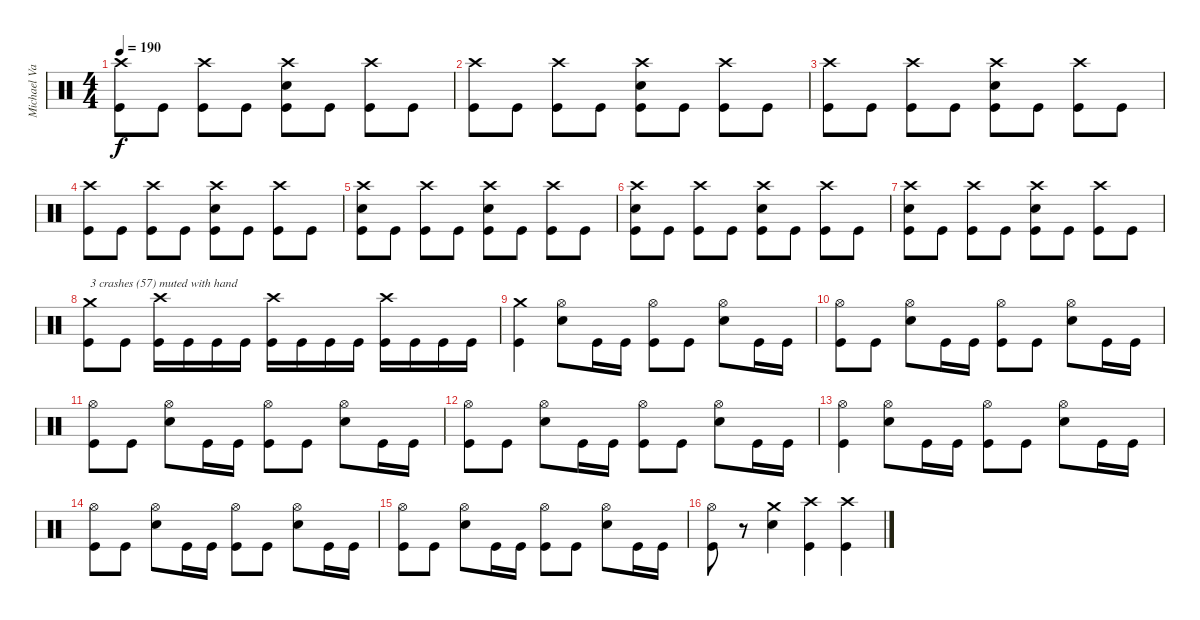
\track ("Michael VanDyne" "Michael Va") {instrument percussion}
\staff {score}
\articulation defaults
\ts (4 4)
\tempo 190
\clef neutral
\ks c
("Crash high (hit)" "Kick (hit)").8{dy f} "Kick (hit)".8 ("Crash high (hit)" "Kick (hit)").8 "Kick (hit)".8 ("Crash high (hit)" "Electric Snare (hit)" "Kick (hit)").8 "Kick (hit)".8 ("Crash high (hit)" "Kick (hit)").8 "Kick (hit)".8 |
("Crash high (hit)" "Kick (hit)").8 "Kick (hit)".8 ("Crash high (hit)" "Kick (hit)").8 "Kick (hit)".8 ("Crash high (hit)" "Electric Snare (hit)" "Kick (hit)").8 "Kick (hit)".8 ("Crash high (hit)" "Kick (hit)").8 "Kick (hit)".8 |
("Crash high (hit)" "Kick (hit)").8 "Kick (hit)".8 ("Crash high (hit)" "Kick (hit)").8 "Kick (hit)".8 ("Crash high (hit)" "Electric Snare (hit)" "Kick (hit)").8 "Kick (hit)".8 ("Crash high (hit)" "Kick (hit)").8 "Kick (hit)".8 |
("Crash high (hit)" "Kick (hit)").8 "Kick (hit)".8 ("Crash high (hit)" "Kick (hit)").8 "Kick (hit)".8 ("Crash high (hit)" "Electric Snare (hit)" "Kick (hit)").8 "Kick (hit)".8 ("Crash high (hit)" "Kick (hit)").8 "Kick (hit)".8 |
("Crash high (hit)" "Electric Snare (hit)" "Kick (hit)").8 "Kick (hit)".8 ("Crash high (hit)" "Kick (hit)").8 "Kick (hit)".8 ("Crash high (hit)" "Electric Snare (hit)" "Kick (hit)").8 "Kick (hit)".8 ("Crash high (hit)" "Kick (hit)").8 "Kick (hit)".8 |
("Crash high (hit)" "Electric Snare (hit)" "Kick (hit)").8 "Kick (hit)".8 ("Crash high (hit)" "Kick (hit)").8 "Kick (hit)".8 ("Crash high (hit)" "Electric Snare (hit)" "Kick (hit)").8 "Kick (hit)".8 ("Crash high (hit)" "Kick (hit)").8 "Kick (hit)".8 |
("Crash high (hit)" "Electric Snare (hit)" "Kick (hit)").8 "Kick (hit)".8 ("Crash high (hit)" "Kick (hit)").8 "Kick (hit)".8 ("Crash high (hit)" "Electric Snare (hit)" "Kick (hit)").8 "Kick (hit)".8 ("Crash high (hit)" "Kick (hit)").8 "Kick (hit)".8 |
("Crash medium (hit)" "Kick (hit)").8{txt "3 crashes (57) muted with hand"} "Kick (hit)".8 ("Crash high (hit)" "Kick (hit)").16 "Kick (hit)".16 "Kick (hit)".16 "Kick (hit)".16 ("Crash high (hit)" "Kick (hit)").16 "Kick (hit)".16 "Kick (hit)".16 "Kick (hit)".16 ("Crash high (hit)" "Kick (hit)").16 "Kick (hit)".16 "Kick (hit)".16 "Kick (hit)".16 |
("Crash medium (hit)" "Kick (hit)").4 ("Hi-Hat (open)" "Electric Snare (hit)").8 "Kick (hit)".16 "Kick (hit)".16 ("Hi-Hat (open)" "Kick (hit)").8 "Kick (hit)".8 ("Hi-Hat (open)" "Electric Snare (hit)").8 "Kick (hit)".16 "Kick (hit)".16 |
("Hi-Hat (open)" "Kick (hit)").8 "Kick (hit)".8 ("Hi-Hat (open)" "Electric Snare (hit)").8 "Kick (hit)".16 "Kick (hit)".16 ("Hi-Hat (open)" "Kick (hit)").8 "Kick (hit)".8 ("Hi-Hat (open)" "Electric Snare (hit)").8 "Kick (hit)".16 "Kick (hit)".16 |
("Hi-Hat (open)" "Kick (hit)").8 "Kick (hit)".8 ("Hi-Hat (open)" "Electric Snare (hit)").8 "Kick (hit)".16 "Kick (hit)".16 ("Hi-Hat (open)" "Kick (hit)").8 "Kick (hit)".8 ("Hi-Hat (open)" "Electric Snare (hit)").8 "Kick (hit)".16 "Kick (hit)".16 |
("Hi-Hat (open)" "Kick (hit)").8 "Kick (hit)".8 ("Hi-Hat (open)" "Electric Snare (hit)").8 "Kick (hit)".16 "Kick (hit)".16 ("Hi-Hat (open)" "Kick (hit)").8 "Kick (hit)".8 ("Hi-Hat (open)" "Electric Snare (hit)").8 "Kick (hit)".16 "Kick (hit)".16 |
("Hi-Hat (open)" "Kick (hit)").4 ("Hi-Hat (open)" "Electric Snare (hit)").8 "Kick (hit)".16 "Kick (hit)".16 ("Hi-Hat (open)" "Kick (hit)").8 "Kick (hit)".8 ("Hi-Hat (open)" "Electric Snare (hit)").8 "Kick (hit)".16 "Kick (hit)".16 |
("Hi-Hat (open)" "Kick (hit)").8 "Kick (hit)".8 ("Hi-Hat (open)" "Electric Snare (hit)").8 "Kick (hit)".16 "Kick (hit)".16 ("Hi-Hat (open)" "Kick (hit)").8 "Kick (hit)".8 ("Hi-Hat (open)" "Electric Snare (hit)").8 "Kick (hit)".16 "Kick (hit)".16 |
("Hi-Hat (open)" "Kick (hit)").8 "Kick (hit)".8 ("Hi-Hat (open)" "Electric Snare (hit)").8 "Kick (hit)".16 "Kick (hit)".16 ("Hi-Hat (open)" "Kick (hit)").8 "Kick (hit)".8 ("Hi-Hat (open)" "Electric Snare (hit)").8 "Kick (hit)".16 "Kick (hit)".16 |
("Hi-Hat (open)" "Kick (hit)").8 r.8 ("Crash medium (hit)" "Electric Snare (hit)").4 ("Crash high (hit)" "Kick (hit)").4 ("Crash high (hit)" "Kick (hit)").4
